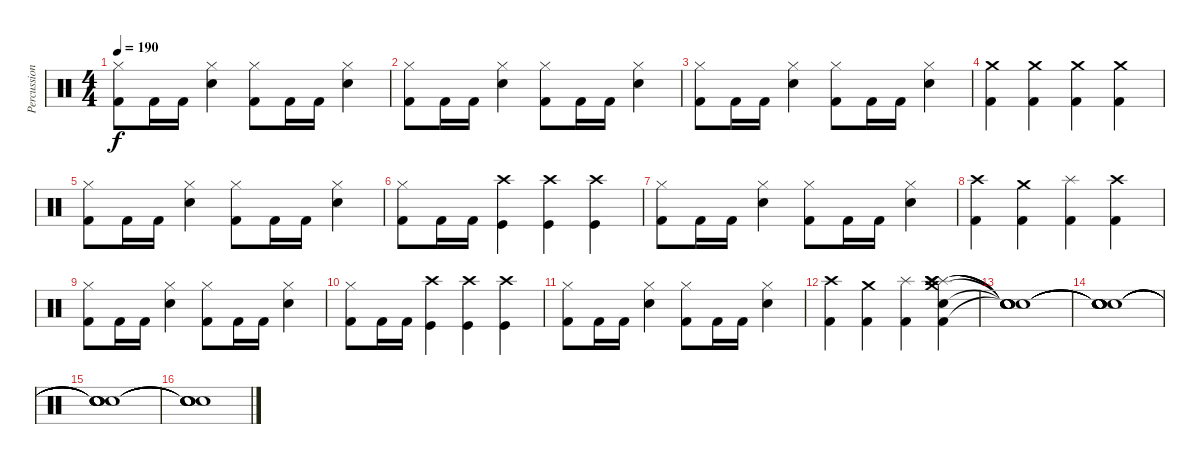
\track ("Percussion" "Percussion") {instrument percussion}
\staff {score}
\articulation defaults
\ts (4 4)
\tempo 190
\clef neutral
\ks c
("Hi-Hat (closed)" "Kick (hit) 2").8{dy f} "Kick (hit) 2".16 "Kick (hit) 2".16 ("Hi-Hat (closed)" "Electric Snare (hit)").4 ("Hi-Hat (closed)" "Kick (hit) 2").8 "Kick (hit) 2".16 "Kick (hit) 2".16 ("Hi-Hat (closed)" "Electric Snare (hit)").4 |
("Hi-Hat (closed)" "Kick (hit) 2").8 "Kick (hit) 2".16 "Kick (hit) 2".16 ("Hi-Hat (closed)" "Electric Snare (hit)").4 ("Hi-Hat (closed)" "Kick (hit) 2").8 "Kick (hit) 2".16 "Kick (hit) 2".16 ("Hi-Hat (closed)" "Electric Snare (hit)").4 |
("Hi-Hat (closed)" "Kick (hit) 2").8 "Kick (hit) 2".16 "Kick (hit) 2".16 ("Hi-Hat (closed)" "Electric Snare (hit)").4 ("Hi-Hat (closed)" "Kick (hit) 2").8 "Kick (hit) 2".16 "Kick (hit) 2".16 ("Hi-Hat (closed)" "Electric Snare (hit)").4 |
("Crash medium (hit)" "Kick (hit) 2").4 ("Crash medium (hit)" "Kick (hit) 2").4 ("Crash medium (hit)" "Kick (hit) 2").4 ("Crash medium (hit)" "Kick (hit) 2").4 |
("Hi-Hat (closed)" "Kick (hit) 2").8 "Kick (hit) 2".16 "Kick (hit) 2".16 ("Hi-Hat (closed)" "Electric Snare (hit)").4 ("Hi-Hat (closed)" "Kick (hit) 2").8 "Kick (hit) 2".16 "Kick (hit) 2".16 ("Hi-Hat (closed)" "Electric Snare (hit)").4 |
("Hi-Hat (closed)" "Kick (hit) 2").8 "Kick (hit) 2".16 "Kick (hit) 2".16 ("Crash high (hit)" "Kick (hit)").4 ("Crash high (hit)" "Kick (hit)").4 ("Crash high (hit)" "Kick (hit)").4 |
("Hi-Hat (closed)" "Kick (hit) 2").8 "Kick (hit) 2".16 "Kick (hit) 2".16 ("Hi-Hat (closed)" "Electric Snare (hit)").4 ("Hi-Hat (closed)" "Kick (hit) 2").8 "Kick (hit) 2".16 "Kick (hit) 2".16 ("Hi-Hat (closed)" "Electric Snare (hit)").4 |
("Crash high (hit)" "Kick (hit) 2").4 ("Crash medium (hit)" "Kick (hit) 2").4 ("Splash (hit)" "Kick (hit) 2").4 ("Crash high (hit)" "Kick (hit) 2").4 |
("Hi-Hat (closed)" "Kick (hit) 2").8 "Kick (hit) 2".16 "Kick (hit) 2".16 ("Hi-Hat (closed)" "Electric Snare (hit)").4 ("Hi-Hat (closed)" "Kick (hit) 2").8 "Kick (hit) 2".16 "Kick (hit) 2".16 ("Hi-Hat (closed)" "Electric Snare (hit)").4 |
("Hi-Hat (closed)" "Kick (hit) 2").8 "Kick (hit) 2".16 "Kick (hit) 2".16 ("Crash high (hit)" "Kick (hit)").4 ("Crash high (hit)" "Kick (hit)").4 ("Crash high (hit)" "Kick (hit)").4 |
("Hi-Hat (closed)" "Kick (hit) 2").8 "Kick (hit) 2".16 "Kick (hit) 2".16 ("Hi-Hat (closed)" "Electric Snare (hit)").4 ("Hi-Hat (closed)" "Kick (hit) 2").8 "Kick (hit) 2".16 "Kick (hit) 2".16 ("Hi-Hat (closed)" "Electric Snare (hit)").4 |
("Crash high (hit)" "Kick (hit) 2").4 ("Crash medium (hit)" "Kick (hit) 2").4 ("Splash (hit)" "Kick (hit) 2").4 ("Splash (hit)" "Crash high (hit)" "Crash high (hit)" "Kick (hit) 2" "Crash medium (hit)" "Electric Snare (hit)").4 |
("Snare (hit)"{t} "Snare (hit)"{t} "Snare (hit)"{t} "Snare (hit)"{t} "Snare (hit)"{t} "Snare (hit)"{t}).1 |
("Snare (hit)"{t} "Snare (hit)"{t} "Snare (hit)"{t} "Snare (hit)"{t} "Snare (hit)"{t} "Snare (hit)"{t}).1 |
("Snare (hit)"{t} "Snare (hit)"{t} "Snare (hit)"{t} "Snare (hit)"{t} "Snare (hit)"{t} "Snare (hit)"{t}).1 |
("Snare (hit)"{t} "Snare (hit)"{t} "Snare (hit)"{t} "Snare (hit)"{t} "Snare (hit)"{t} "Snare (hit)"{t}).1
